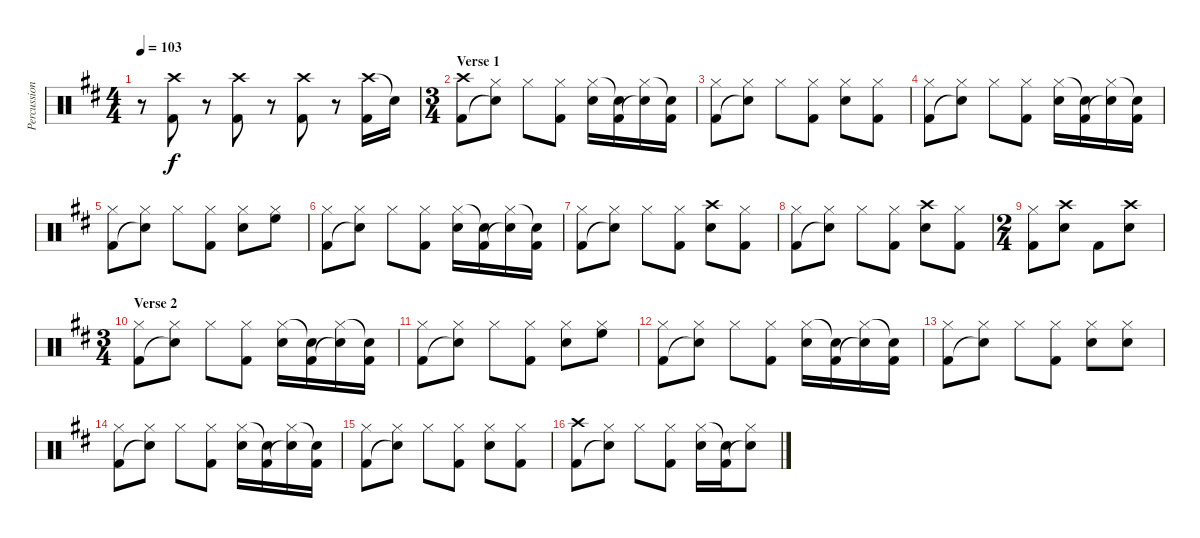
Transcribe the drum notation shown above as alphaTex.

\track ("Percussions" "Percussion") {instrument percussion}
\staff {score}
\articulation defaults
\ts (4 4)
\tempo 103
\clef neutral
\ks bminor
r.8{dy f} ("Crash high (hit)" "Kick (hit) 2").8 r.8 ("Crash high (hit)" "Kick (hit) 2").8 r.8 ("Crash high (hit)" "Kick (hit) 2").8 r.8 ("Crash high (hit)" "Kick (hit) 2").16 "Snare (hit)"{t}.16 |
\ts (3 4)
\section ("" "Verse 1")
("Crash high (hit)" "Kick (hit) 2").8 ("Hi-Hat (closed)" "Snare (hit)"{t}).8 "Hi-Hat (closed)".8 ("Hi-Hat (closed)" "Kick (hit) 2").8 ("Hi-Hat (closed)" "Snare (hit) 2").16 ("Snare (hit)"{t} "Kick (hit) 2").16 ("Hi-Hat (closed)" "Snare (hit)"{t}).16 ("Snare (hit)"{t} "Kick (hit) 2").16 |
("Hi-Hat (closed)" "Kick (hit) 2").8 ("Hi-Hat (closed)" "Snare (hit)"{t}).8 "Hi-Hat (closed)".8 ("Hi-Hat (closed)" "Kick (hit) 2").8 ("Hi-Hat (closed)" "Snare (hit) 2").8 ("Hi-Hat (closed)" "Kick (hit) 2").8 |
("Hi-Hat (closed)" "Kick (hit) 2").8 ("Hi-Hat (closed)" "Snare (hit)"{t}).8 "Hi-Hat (closed)".8 ("Hi-Hat (closed)" "Kick (hit) 2").8 ("Hi-Hat (closed)" "Snare (hit) 2").16 ("Snare (hit)"{t} "Kick (hit) 2").16 ("Hi-Hat (closed)" "Snare (hit)"{t}).16 ("Snare (hit)"{t} "Kick (hit) 2").16 |
("Hi-Hat (closed)" "Kick (hit) 2").8 ("Hi-Hat (closed)" "Snare (hit)"{t}).8 "Hi-Hat (closed)".8 ("Hi-Hat (closed)" "Kick (hit) 2").8 ("Hi-Hat (closed)" "Snare (hit) 2").8 ("Hi-Hat (closed)" "High Floor Tom (hit)").8 |
("Hi-Hat (closed)" "Kick (hit) 2").8 ("Hi-Hat (closed)" "Snare (hit)"{t}).8 "Hi-Hat (closed)".8 ("Hi-Hat (closed)" "Kick (hit) 2").8 ("Hi-Hat (closed)" "Snare (hit) 2").16 ("Snare (hit)"{t} "Kick (hit) 2").16 ("Hi-Hat (closed)" "Snare (hit)"{t}).16 ("Snare (hit)"{t} "Kick (hit) 2").16 |
("Hi-Hat (closed)" "Kick (hit) 2").8 ("Hi-Hat (closed)" "Snare (hit)"{t}).8 "Hi-Hat (closed)".8 ("Hi-Hat (closed)" "Kick (hit) 2").8 ("Crash high (hit)" "Snare (hit) 2").8 ("Hi-Hat (closed)" "Kick (hit) 2").8 |
("Hi-Hat (closed)" "Kick (hit) 2").8 ("Hi-Hat (closed)" "Snare (hit)"{t}).8 "Hi-Hat (closed)".8 ("Hi-Hat (closed)" "Kick (hit) 2").8 ("Crash high (hit)" "Snare (hit) 2").8 ("Hi-Hat (closed)" "Kick (hit) 2").8 |
\ts (2 4)
("Hi-Hat (closed)" "Kick (hit) 2").8 ("Crash high (hit)" "Snare (hit) 2").8 "Kick (hit) 2".8 ("Crash high (hit)" "Snare (hit) 2").8 |
\ts (3 4)
\section ("" "Verse 2")
("Hi-Hat (closed)" "Kick (hit) 2").8 ("Hi-Hat (closed)" "Snare (hit)"{t}).8 "Hi-Hat (closed)".8 ("Hi-Hat (closed)" "Kick (hit) 2").8 ("Hi-Hat (closed)" "Snare (hit) 2").16 ("Snare (hit)"{t} "Kick (hit) 2").16 ("Hi-Hat (closed)" "Snare (hit)"{t}).16 ("Snare (hit)"{t} "Kick (hit) 2").16 |
("Hi-Hat (closed)" "Kick (hit) 2").8 ("Hi-Hat (closed)" "Snare (hit)"{t}).8 "Hi-Hat (closed)".8 ("Hi-Hat (closed)" "Kick (hit) 2").8 ("Hi-Hat (closed)" "Snare (hit) 2").8 ("Hi-Hat (closed)" "High Floor Tom (hit)").8 |
("Hi-Hat (closed)" "Kick (hit) 2").8 ("Hi-Hat (closed)" "Snare (hit)"{t}).8 "Hi-Hat (closed)".8 ("Hi-Hat (closed)" "Kick (hit) 2").8 ("Hi-Hat (closed)" "Snare (hit) 2").16 ("Snare (hit)"{t} "Kick (hit) 2").16 ("Hi-Hat (closed)" "Snare (hit)"{t}).16 ("Snare (hit)"{t} "Kick (hit) 2").16 |
("Hi-Hat (closed)" "Kick (hit) 2").8 ("Hi-Hat (closed)" "Snare (hit)"{t}).8 "Hi-Hat (closed)".8 ("Hi-Hat (closed)" "Kick (hit) 2").8 ("Hi-Hat (closed)" "Snare (hit) 2").8 ("Hi-Hat (closed)" "Snare (hit) 2").8 |
("Hi-Hat (closed)" "Kick (hit) 2").8 ("Hi-Hat (closed)" "Snare (hit)"{t}).8 "Hi-Hat (closed)".8 ("Hi-Hat (closed)" "Kick (hit) 2").8 ("Hi-Hat (closed)" "Snare (hit) 2").16 ("Snare (hit)"{t} "Kick (hit) 2").16 ("Hi-Hat (closed)" "Snare (hit)"{t}).16 ("Snare (hit)"{t} "Kick (hit) 2").16 |
("Hi-Hat (closed)" "Kick (hit) 2").8 ("Hi-Hat (closed)" "Snare (hit)"{t}).8 "Hi-Hat (closed)".8 ("Hi-Hat (closed)" "Kick (hit) 2").8 ("Hi-Hat (closed)" "Snare (hit) 2").8 ("Hi-Hat (closed)" "Kick (hit) 2").8 |
("Crash high (hit)" "Kick (hit) 2").8 ("Hi-Hat (closed)" "Snare (hit)"{t}).8 "Hi-Hat (closed)".8 ("Hi-Hat (closed)" "Kick (hit) 2").8 ("Hi-Hat (closed)" "Snare (hit) 2").16 ("Snare (hit)"{t} "Kick (hit) 2").16 ("Hi-Hat (closed)" "Snare (hit)"{t}).8
